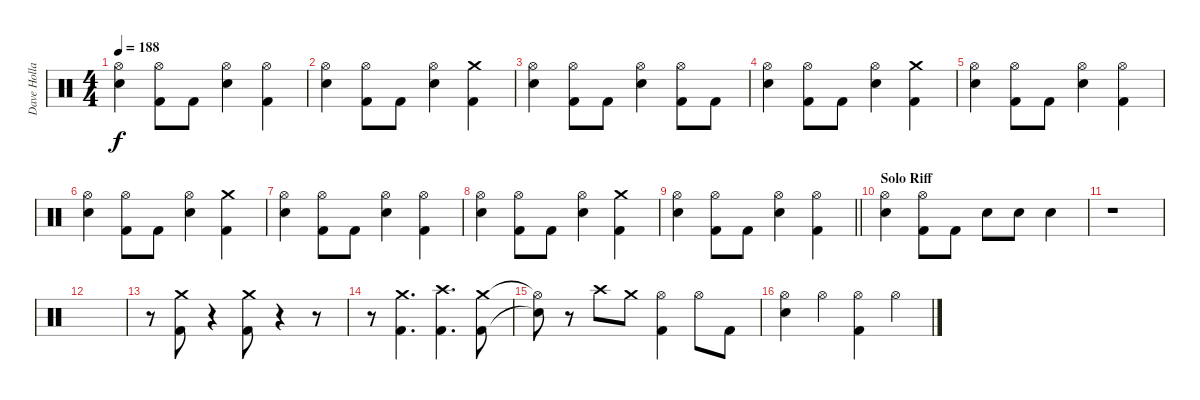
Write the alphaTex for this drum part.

\track ("Dave Holland" "Dave Holla") {instrument percussion}
\staff {score}
\articulation defaults
\ts (4 4)
\tempo 188
\clef neutral
\ks c
("Snare (hit) 2" "Hi-Hat (open)").4{dy f} ("Kick (hit) 2" "Hi-Hat (open)").8 "Kick (hit) 2".8 ("Snare (hit) 2" "Hi-Hat (open)").4 ("Kick (hit) 2" "Hi-Hat (open)").4 |
("Snare (hit) 2" "Hi-Hat (open)").4 ("Kick (hit) 2" "Hi-Hat (open)").8 "Kick (hit) 2".8 ("Snare (hit) 2" "Hi-Hat (open)").4 ("Kick (hit) 2" "Crash medium (hit)").4 |
("Snare (hit) 2" "Hi-Hat (open)").4 ("Kick (hit) 2" "Hi-Hat (open)").8 "Kick (hit) 2".8 ("Snare (hit) 2" "Hi-Hat (open)").4 ("Kick (hit) 2" "Hi-Hat (open)").8 "Kick (hit) 2".8 |
("Snare (hit) 2" "Hi-Hat (open)").4 ("Kick (hit) 2" "Hi-Hat (open)").8 "Kick (hit) 2".8 ("Snare (hit) 2" "Hi-Hat (open)").4 ("Kick (hit) 2" "Crash medium (hit)").4 |
("Snare (hit) 2" "Hi-Hat (open)").4 ("Kick (hit) 2" "Hi-Hat (open)").8 "Kick (hit) 2".8 ("Snare (hit) 2" "Hi-Hat (open)").4 ("Kick (hit) 2" "Hi-Hat (open)").4 |
("Snare (hit) 2" "Hi-Hat (open)").4 ("Kick (hit) 2" "Hi-Hat (open)").8 "Kick (hit) 2".8 ("Snare (hit) 2" "Hi-Hat (open)").4 ("Kick (hit) 2" "Crash medium (hit)").4 |
("Snare (hit) 2" "Hi-Hat (open)").4 ("Kick (hit) 2" "Hi-Hat (open)").8 "Kick (hit) 2".8 ("Snare (hit) 2" "Hi-Hat (open)").4 ("Kick (hit) 2" "Hi-Hat (open)").4 |
("Snare (hit) 2" "Hi-Hat (open)").4 ("Kick (hit) 2" "Hi-Hat (open)").8 "Kick (hit) 2".8 ("Snare (hit) 2" "Hi-Hat (open)").4 ("Kick (hit) 2" "Crash medium (hit)").4 |
\barLineRight lightlight
("Snare (hit) 2" "Hi-Hat (open)").4 ("Kick (hit) 2" "Hi-Hat (open)").8 "Kick (hit) 2".8 ("Snare (hit) 2" "Hi-Hat (open)").4 ("Kick (hit) 2" "Hi-Hat (open)").4 |
\section ("" "Solo Riff")
("Snare (hit) 2" "Hi-Hat (open)").4 ("Kick (hit) 2" "Hi-Hat (open)").8 "Kick (hit) 2".8 "Snare (hit) 2".8 "Snare (hit) 2".8 "Snare (hit) 2".4 |
r.1 |
|
r.8 ("Kick (hit) 2" "Crash medium (hit)").8 r.4 ("Kick (hit) 2" "Crash medium (hit)").8 r.4 r.8 |
r.8 ("Kick (hit) 2" "Crash medium (hit)").4{d} ("Kick (hit) 2" "Crash high (hit)").4{d} ("Kick (hit) 2" "Crash medium (hit)").8 |
("Snare (hit) 2"{t} "Hi-Hat (open)"{t}).8 r.8 "Crash high (hit)".8 "Crash medium (hit)".8 ("Kick (hit) 2" "Hi-Hat (open)").4 "Hi-Hat (open)".8 "Kick (hit) 2".8 |
("Snare (hit) 2" "Hi-Hat (open)").4 "Hi-Hat (open)".4 ("Kick (hit) 2" "Hi-Hat (open)").4 "Hi-Hat (open)".4
